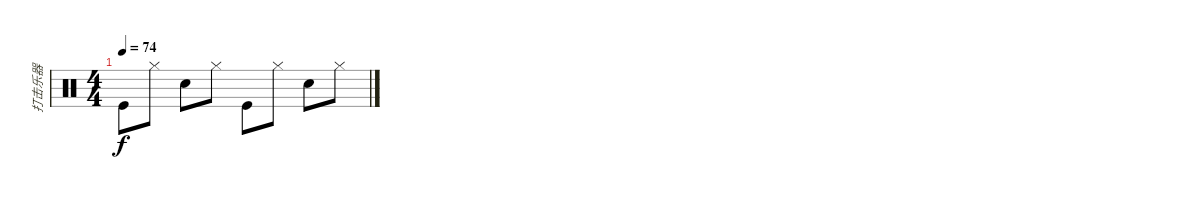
\track ("打击乐器" "打击乐器") {instrument percussion}
\staff {score}
\articulation defaults
\ts (4 4)
\tempo 74
\clef neutral
\ks c "Kick (hit)".8{dy f} "Hi-Hat (closed)".8 "Electric Snare (hit)".8 "Hi-Hat (closed)".8 "Kick (hit)".8 "Hi-Hat (closed)".8 "Electric Snare (hit)".8 "Hi-Hat (closed)".8
